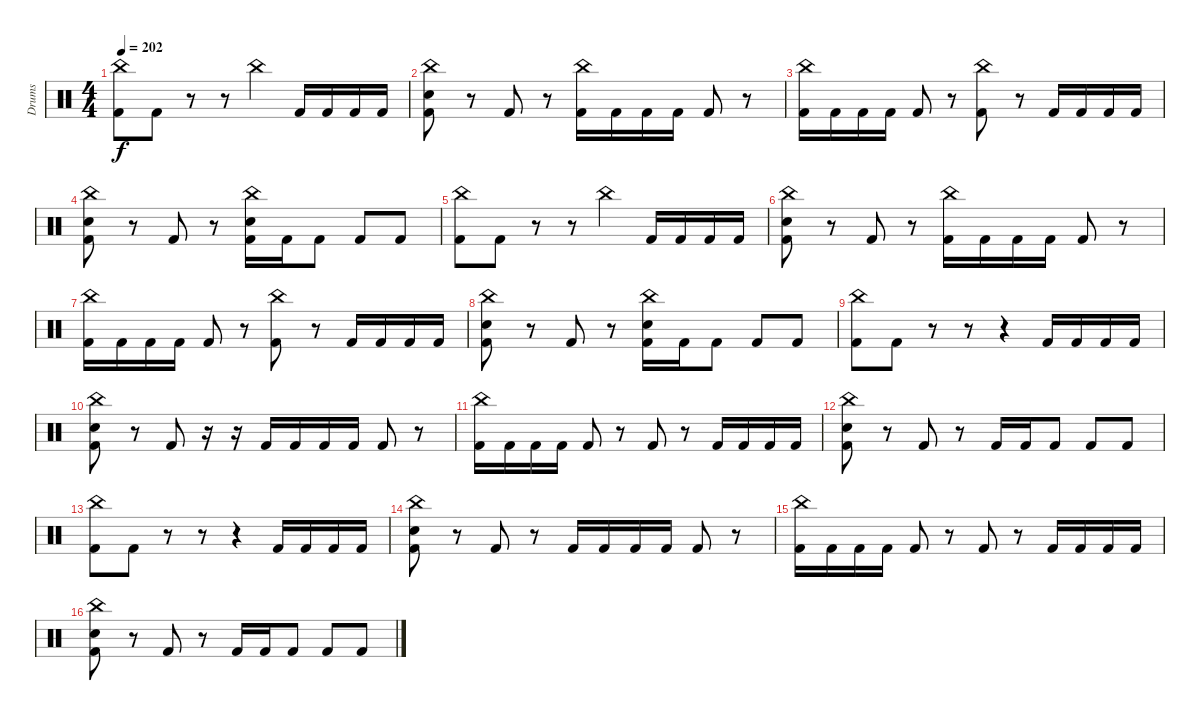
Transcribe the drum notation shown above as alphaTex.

\track ("Drums" "Drums") {instrument percussion}
\staff {score}
\articulation defaults
\ts (4 4)
\tempo 202
\clef neutral
\ks c
("China (hit)" "Kick (hit) 2").8{dy f} "Kick (hit) 2".8 r.8 r.8 "China (hit)".4 "Kick (hit) 2".16 "Kick (hit) 2".16 "Kick (hit) 2".16 "Kick (hit) 2".16 |
("China (hit)" "Electric Snare (hit)" "Kick (hit) 2").8 r.8 "Kick (hit) 2".8 r.8 ("China (hit)" "Kick (hit) 2").16 "Kick (hit) 2".16 "Kick (hit) 2".16 "Kick (hit) 2".16 "Kick (hit) 2".8 r.8 |
("China (hit)" "Kick (hit) 2").16 "Kick (hit) 2".16 "Kick (hit) 2".16 "Kick (hit) 2".16 "Kick (hit) 2".8 r.8 ("China (hit)" "Kick (hit) 2").8 r.8 "Kick (hit) 2".16 "Kick (hit) 2".16 "Kick (hit) 2".16 "Kick (hit) 2".16 |
("China (hit)" "Electric Snare (hit)" "Kick (hit) 2").8 r.8 "Kick (hit) 2".8 r.8 ("China (hit)" "Electric Snare (hit)" "Kick (hit) 2").16 "Kick (hit) 2".16 "Kick (hit) 2".8 "Kick (hit) 2".8 "Kick (hit) 2".8 |
("China (hit)" "Kick (hit) 2").8 "Kick (hit) 2".8 r.8 r.8 "China (hit)".4 "Kick (hit) 2".16 "Kick (hit) 2".16 "Kick (hit) 2".16 "Kick (hit) 2".16 |
("China (hit)" "Electric Snare (hit)" "Kick (hit) 2").8 r.8 "Kick (hit) 2".8 r.8 ("China (hit)" "Kick (hit) 2").16 "Kick (hit) 2".16 "Kick (hit) 2".16 "Kick (hit) 2".16 "Kick (hit) 2".8 r.8 |
("China (hit)" "Kick (hit) 2").16 "Kick (hit) 2".16 "Kick (hit) 2".16 "Kick (hit) 2".16 "Kick (hit) 2".8 r.8 ("China (hit)" "Kick (hit) 2").8 r.8 "Kick (hit) 2".16 "Kick (hit) 2".16 "Kick (hit) 2".16 "Kick (hit) 2".16 |
("China (hit)" "Electric Snare (hit)" "Kick (hit) 2").8 r.8 "Kick (hit) 2".8 r.8 ("China (hit)" "Electric Snare (hit)" "Kick (hit) 2").16 "Kick (hit) 2".16 "Kick (hit) 2".8 "Kick (hit) 2".8 "Kick (hit) 2".8 |
("China (hit)" "Kick (hit) 2").8 "Kick (hit) 2".8 r.8 r.8 r.4 "Kick (hit) 2".16 "Kick (hit) 2".16 "Kick (hit) 2".16 "Kick (hit) 2".16 |
("China (hit)" "Electric Snare (hit)" "Kick (hit) 2").8 r.8 "Kick (hit) 2".8 r.16 r.16 "Kick (hit) 2".16 "Kick (hit) 2".16 "Kick (hit) 2".16 "Kick (hit) 2".16 "Kick (hit) 2".8 r.8 |
("China (hit)" "Kick (hit) 2").16 "Kick (hit) 2".16 "Kick (hit) 2".16 "Kick (hit) 2".16 "Kick (hit) 2".8 r.8 "Kick (hit) 2".8 r.8 "Kick (hit) 2".16 "Kick (hit) 2".16 "Kick (hit) 2".16 "Kick (hit) 2".16 |
("China (hit)" "Electric Snare (hit)" "Kick (hit) 2").8 r.8 "Kick (hit) 2".8 r.8 "Kick (hit) 2".16 "Kick (hit) 2".16 "Kick (hit) 2".8 "Kick (hit) 2".8 "Kick (hit) 2".8 |
("China (hit)" "Kick (hit) 2").8 "Kick (hit) 2".8 r.8 r.8 r.4 "Kick (hit) 2".16 "Kick (hit) 2".16 "Kick (hit) 2".16 "Kick (hit) 2".16 |
("China (hit)" "Electric Snare (hit)" "Kick (hit) 2").8 r.8 "Kick (hit) 2".8 r.8 "Kick (hit) 2".16 "Kick (hit) 2".16 "Kick (hit) 2".16 "Kick (hit) 2".16 "Kick (hit) 2".8 r.8 |
("China (hit)" "Kick (hit) 2").16 "Kick (hit) 2".16 "Kick (hit) 2".16 "Kick (hit) 2".16 "Kick (hit) 2".8 r.8 "Kick (hit) 2".8 r.8 "Kick (hit) 2".16 "Kick (hit) 2".16 "Kick (hit) 2".16 "Kick (hit) 2".16 |
("China (hit)" "Electric Snare (hit)" "Kick (hit) 2").8 r.8 "Kick (hit) 2".8 r.8 "Kick (hit) 2".16 "Kick (hit) 2".16 "Kick (hit) 2".8 "Kick (hit) 2".8 "Kick (hit) 2".8
